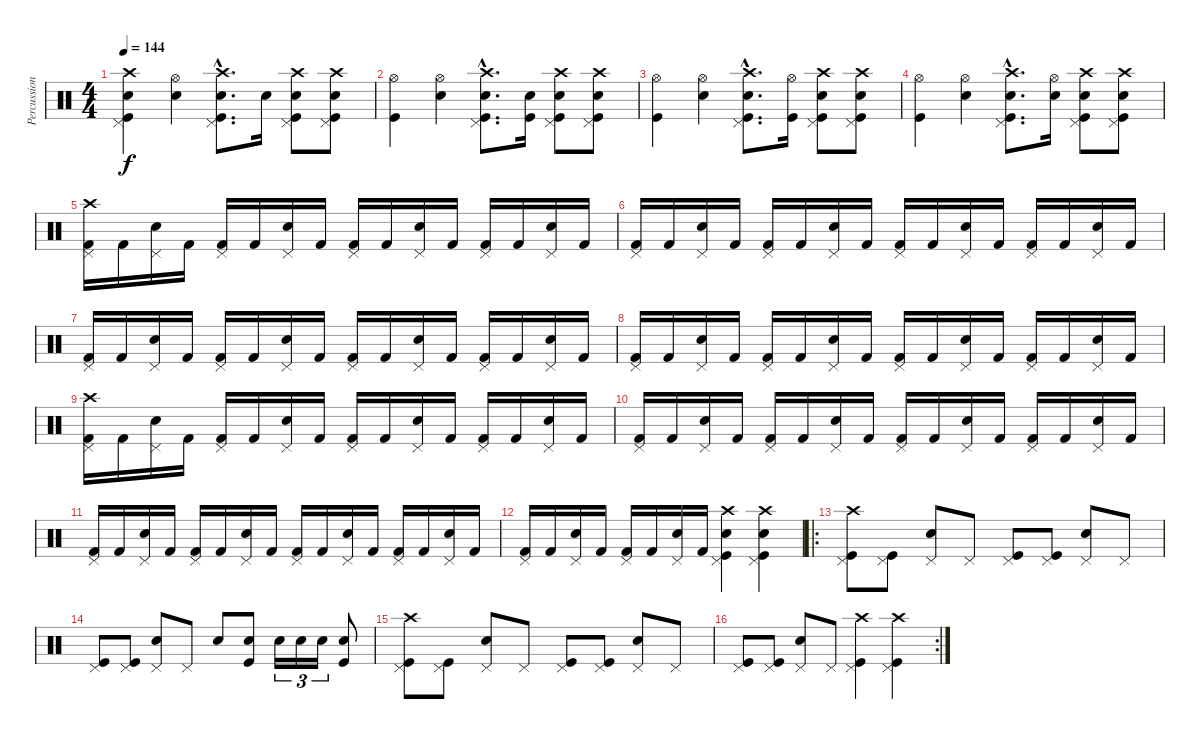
\track ("Percussion" "Percussion") {instrument percussion}
\staff {score}
\articulation defaults
\ts (4 4)
\tempo 144
\clef neutral
\ks c
("Crash high (hit)" "Kick (hit)" "Snare (hit) 2" "Pedal Hi-Hat (hit)").4{dy f} ("Hi-Hat (open)" "Snare (hit) 2").4 ("Crash high (hit)"{hac} "Kick (hit)"{hac} "Pedal Hi-Hat (hit)"{hac} "Snare (hit) 2"{hac}).8{d} "Snare (hit) 2".16 ("Crash high (hit)" "Kick (hit)" "Snare (hit) 2" "Pedal Hi-Hat (hit)").8 ("Crash high (hit)" "Pedal Hi-Hat (hit)" "Kick (hit)" "Snare (hit) 2").8 |
("Hi-Hat (open)" "Kick (hit)").4 ("Hi-Hat (open)" "Snare (hit) 2").4 ("Crash high (hit)"{hac} "Kick (hit)"{hac} "Pedal Hi-Hat (hit)"{hac} "Snare (hit) 2"{hac}).8{d} ("Snare (hit) 2" "Kick (hit)").16 ("Crash high (hit)" "Kick (hit)" "Snare (hit) 2" "Pedal Hi-Hat (hit)").8 ("Crash high (hit)" "Pedal Hi-Hat (hit)" "Kick (hit)" "Snare (hit) 2").8 |
("Hi-Hat (open)" "Kick (hit)").4 ("Hi-Hat (open)" "Snare (hit) 2").4 ("Crash high (hit)"{hac} "Kick (hit)"{hac} "Pedal Hi-Hat (hit)"{hac} "Snare (hit) 2"{hac}).8{d} ("Hi-Hat (open)" "Kick (hit)").16 ("Crash high (hit)" "Kick (hit)" "Snare (hit) 2" "Pedal Hi-Hat (hit)").8 ("Crash high (hit)" "Pedal Hi-Hat (hit)" "Kick (hit)" "Snare (hit) 2").8 |
("Hi-Hat (open)" "Kick (hit)").4 ("Hi-Hat (open)" "Snare (hit) 2").4 ("Crash high (hit)"{hac} "Kick (hit)"{hac} "Pedal Hi-Hat (hit)"{hac} "Snare (hit) 2"{hac}).8{d} ("Hi-Hat (open)" "Snare (hit) 2").16 ("Crash high (hit)" "Kick (hit)" "Snare (hit) 2" "Pedal Hi-Hat (hit)").8 ("Crash high (hit)" "Pedal Hi-Hat (hit)" "Kick (hit)" "Snare (hit) 2").8 |
("Pedal Hi-Hat (hit)" "Kick (hit) 2" "Crash high (hit)").16 "Kick (hit) 2".16 ("Pedal Hi-Hat (hit)" "Snare (hit) 2").16 "Kick (hit) 2".16 ("Pedal Hi-Hat (hit)" "Kick (hit) 2").16 "Kick (hit) 2".16 ("Pedal Hi-Hat (hit)" "Snare (hit) 2").16 "Kick (hit) 2".16 ("Pedal Hi-Hat (hit)" "Kick (hit) 2").16 "Kick (hit) 2".16 ("Pedal Hi-Hat (hit)" "Snare (hit) 2").16 "Kick (hit) 2".16 ("Pedal Hi-Hat (hit)" "Kick (hit) 2").16 "Kick (hit) 2".16 ("Pedal Hi-Hat (hit)" "Snare (hit) 2").16 "Kick (hit) 2".16 |
("Pedal Hi-Hat (hit)" "Kick (hit) 2").16 "Kick (hit) 2".16 ("Pedal Hi-Hat (hit)" "Snare (hit) 2").16 "Kick (hit) 2".16 ("Pedal Hi-Hat (hit)" "Kick (hit) 2").16 "Kick (hit) 2".16 ("Pedal Hi-Hat (hit)" "Snare (hit) 2").16 "Kick (hit) 2".16 ("Pedal Hi-Hat (hit)" "Kick (hit) 2").16 "Kick (hit) 2".16 ("Pedal Hi-Hat (hit)" "Snare (hit) 2").16 "Kick (hit) 2".16 ("Pedal Hi-Hat (hit)" "Kick (hit) 2").16 "Kick (hit) 2".16 ("Pedal Hi-Hat (hit)" "Snare (hit) 2").16 "Kick (hit) 2".16 |
("Pedal Hi-Hat (hit)" "Kick (hit) 2").16 "Kick (hit) 2".16 ("Pedal Hi-Hat (hit)" "Snare (hit) 2").16 "Kick (hit) 2".16 ("Pedal Hi-Hat (hit)" "Kick (hit) 2").16 "Kick (hit) 2".16 ("Pedal Hi-Hat (hit)" "Snare (hit) 2").16 "Kick (hit) 2".16 ("Pedal Hi-Hat (hit)" "Kick (hit) 2").16 "Kick (hit) 2".16 ("Pedal Hi-Hat (hit)" "Snare (hit) 2").16 "Kick (hit) 2".16 ("Pedal Hi-Hat (hit)" "Kick (hit) 2").16 "Kick (hit) 2".16 ("Pedal Hi-Hat (hit)" "Snare (hit) 2").16 "Kick (hit) 2".16 |
("Pedal Hi-Hat (hit)" "Kick (hit) 2").16 "Kick (hit) 2".16 ("Pedal Hi-Hat (hit)" "Snare (hit) 2").16 "Kick (hit) 2".16 ("Pedal Hi-Hat (hit)" "Kick (hit) 2").16 "Kick (hit) 2".16 ("Pedal Hi-Hat (hit)" "Snare (hit) 2").16 "Kick (hit) 2".16 ("Pedal Hi-Hat (hit)" "Kick (hit) 2").16 "Kick (hit) 2".16 ("Pedal Hi-Hat (hit)" "Snare (hit) 2").16 "Kick (hit) 2".16 ("Pedal Hi-Hat (hit)" "Kick (hit) 2").16 "Kick (hit) 2".16 ("Pedal Hi-Hat (hit)" "Snare (hit) 2").16 "Kick (hit) 2".16 |
("Pedal Hi-Hat (hit)" "Kick (hit) 2" "Crash high (hit)").16 "Kick (hit) 2".16 ("Pedal Hi-Hat (hit)" "Snare (hit) 2").16 "Kick (hit) 2".16 ("Pedal Hi-Hat (hit)" "Kick (hit) 2").16 "Kick (hit) 2".16 ("Pedal Hi-Hat (hit)" "Snare (hit) 2").16 "Kick (hit) 2".16 ("Pedal Hi-Hat (hit)" "Kick (hit) 2").16 "Kick (hit) 2".16 ("Pedal Hi-Hat (hit)" "Snare (hit) 2").16 "Kick (hit) 2".16 ("Pedal Hi-Hat (hit)" "Kick (hit) 2").16 "Kick (hit) 2".16 ("Pedal Hi-Hat (hit)" "Snare (hit) 2").16 "Kick (hit) 2".16 |
("Pedal Hi-Hat (hit)" "Kick (hit) 2").16 "Kick (hit) 2".16 ("Pedal Hi-Hat (hit)" "Snare (hit) 2").16 "Kick (hit) 2".16 ("Pedal Hi-Hat (hit)" "Kick (hit) 2").16 "Kick (hit) 2".16 ("Pedal Hi-Hat (hit)" "Snare (hit) 2").16 "Kick (hit) 2".16 ("Pedal Hi-Hat (hit)" "Kick (hit) 2").16 "Kick (hit) 2".16 ("Pedal Hi-Hat (hit)" "Snare (hit) 2").16 "Kick (hit) 2".16 ("Pedal Hi-Hat (hit)" "Kick (hit) 2").16 "Kick (hit) 2".16 ("Pedal Hi-Hat (hit)" "Snare (hit) 2").16 "Kick (hit) 2".16 |
("Pedal Hi-Hat (hit)" "Kick (hit) 2").16 "Kick (hit) 2".16 ("Pedal Hi-Hat (hit)" "Snare (hit) 2").16 "Kick (hit) 2".16 ("Pedal Hi-Hat (hit)" "Kick (hit) 2").16 "Kick (hit) 2".16 ("Pedal Hi-Hat (hit)" "Snare (hit) 2").16 "Kick (hit) 2".16 ("Pedal Hi-Hat (hit)" "Kick (hit) 2").16 "Kick (hit) 2".16 ("Pedal Hi-Hat (hit)" "Snare (hit) 2").16 "Kick (hit) 2".16 ("Pedal Hi-Hat (hit)" "Kick (hit) 2").16 "Kick (hit) 2".16 ("Pedal Hi-Hat (hit)" "Snare (hit) 2").16 "Kick (hit) 2".16 |
("Pedal Hi-Hat (hit)" "Kick (hit) 2").16 "Kick (hit) 2".16 ("Pedal Hi-Hat (hit)" "Snare (hit) 2").16 "Kick (hit) 2".16 ("Pedal Hi-Hat (hit)" "Kick (hit) 2").16 "Kick (hit) 2".16 ("Pedal Hi-Hat (hit)" "Snare (hit) 2").16 "Kick (hit) 2".16 ("Crash high (hit)" "Kick (hit)" "Snare (hit) 2" "Pedal Hi-Hat (hit)").4 ("Crash high (hit)" "Kick (hit)" "Snare (hit) 2" "Pedal Hi-Hat (hit)").4 |
\ro
("Pedal Hi-Hat (hit)" "Kick (hit)" "Crash high (hit)").8 ("Pedal Hi-Hat (hit)" "Kick (hit)").8 ("Pedal Hi-Hat (hit)" "Snare (hit) 2").8 "Pedal Hi-Hat (hit)".8 ("Pedal Hi-Hat (hit)" "Kick (hit)").8 ("Pedal Hi-Hat (hit)" "Kick (hit)").8 ("Pedal Hi-Hat (hit)" "Snare (hit) 2").8 "Pedal Hi-Hat (hit)".8 |
("Pedal Hi-Hat (hit)" "Kick (hit)").8 ("Pedal Hi-Hat (hit)" "Kick (hit)").8 ("Pedal Hi-Hat (hit)" "Snare (hit) 2").8 "Pedal Hi-Hat (hit)".8 "Snare (hit) 2".8 ("Snare (hit) 2" "Kick (hit)").8 "Snare (hit) 2".16{tu (3 2)} "Snare (hit) 2".16{tu (3 2)} "Snare (hit) 2".16{tu (3 2)} ("Snare (hit) 2" "Kick (hit)").8 |
("Pedal Hi-Hat (hit)" "Kick (hit)" "Crash high (hit)").8 ("Pedal Hi-Hat (hit)" "Kick (hit)").8 ("Pedal Hi-Hat (hit)" "Snare (hit) 2").8 "Pedal Hi-Hat (hit)".8 ("Pedal Hi-Hat (hit)" "Kick (hit)").8 ("Pedal Hi-Hat (hit)" "Kick (hit)").8 ("Pedal Hi-Hat (hit)" "Snare (hit) 2").8 "Pedal Hi-Hat (hit)".8 |
\rc 2
("Pedal Hi-Hat (hit)" "Kick (hit)").8 ("Pedal Hi-Hat (hit)" "Kick (hit)").8 ("Pedal Hi-Hat (hit)" "Snare (hit) 2").8 "Pedal Hi-Hat (hit)".8 ("Pedal Hi-Hat (hit)" "Crash high (hit)" "Kick (hit)").4 ("Pedal Hi-Hat (hit)" "Crash high (hit)" "Kick (hit)").4
